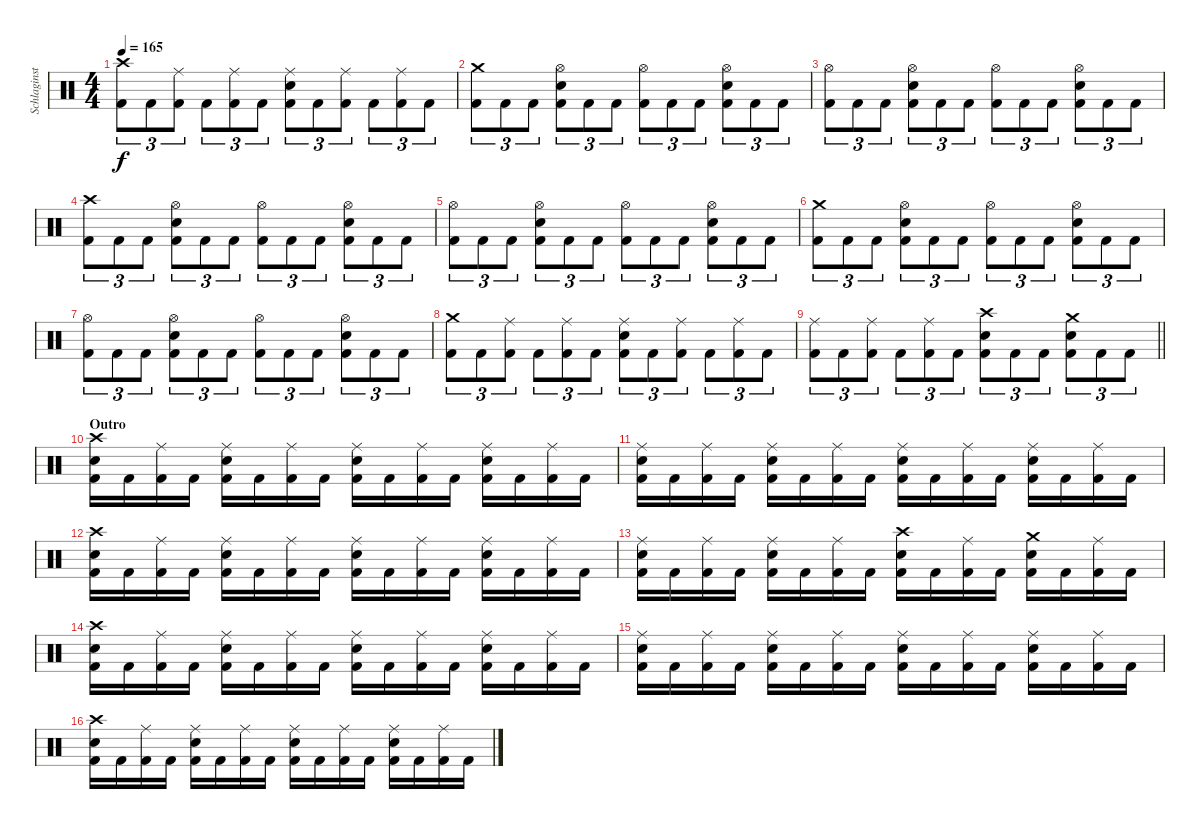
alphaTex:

\track ("Schlaginstrumente - Auswahl" "Schlaginst") {instrument percussion}
\staff {score}
\articulation defaults
\ts (4 4)
\tempo 165
\clef neutral
\ks c
("Crash high (hit)" "Kick (hit) 2").8{tu (3 2) dy f} "Kick (hit) 2".8{tu (3 2)} ("Ride (middle)" "Kick (hit) 2").8{tu (3 2)} "Kick (hit) 2".8{tu (3 2)} ("Ride (middle)" "Kick (hit) 2").8{tu (3 2)} "Kick (hit) 2".8{tu (3 2)} ("Ride (middle)" "Electric Snare (hit)" "Kick (hit) 2").8{tu (3 2)} "Kick (hit) 2".8{tu (3 2)} ("Ride (middle)" "Kick (hit) 2").8{tu (3 2)} "Kick (hit) 2".8{tu (3 2)} ("Ride (middle)" "Kick (hit) 2").8{tu (3 2)} "Kick (hit) 2".8{tu (3 2)} |
("Crash medium (hit)" "Kick (hit) 2").8{tu (3 2)} "Kick (hit) 2".8{tu (3 2)} "Kick (hit) 2".8{tu (3 2)} ("Hi-Hat (open)" "Electric Snare (hit)" "Kick (hit) 2").8{tu (3 2)} "Kick (hit) 2".8{tu (3 2)} "Kick (hit) 2".8{tu (3 2)} ("Hi-Hat (open)" "Kick (hit) 2").8{tu (3 2)} "Kick (hit) 2".8{tu (3 2)} "Kick (hit) 2".8{tu (3 2)} ("Hi-Hat (open)" "Electric Snare (hit)" "Kick (hit) 2").8{tu (3 2)} "Kick (hit) 2".8{tu (3 2)} "Kick (hit) 2".8{tu (3 2)} |
("Hi-Hat (open)" "Kick (hit) 2").8{tu (3 2)} "Kick (hit) 2".8{tu (3 2)} "Kick (hit) 2".8{tu (3 2)} ("Hi-Hat (open)" "Electric Snare (hit)" "Kick (hit) 2").8{tu (3 2)} "Kick (hit) 2".8{tu (3 2)} "Kick (hit) 2".8{tu (3 2)} ("Hi-Hat (open)" "Kick (hit) 2").8{tu (3 2)} "Kick (hit) 2".8{tu (3 2)} "Kick (hit) 2".8{tu (3 2)} ("Hi-Hat (open)" "Electric Snare (hit)" "Kick (hit) 2").8{tu (3 2)} "Kick (hit) 2".8{tu (3 2)} "Kick (hit) 2".8{tu (3 2)} |
("Crash high (hit)" "Kick (hit) 2").8{tu (3 2)} "Kick (hit) 2".8{tu (3 2)} "Kick (hit) 2".8{tu (3 2)} ("Hi-Hat (open)" "Electric Snare (hit)" "Kick (hit) 2").8{tu (3 2)} "Kick (hit) 2".8{tu (3 2)} "Kick (hit) 2".8{tu (3 2)} ("Hi-Hat (open)" "Kick (hit) 2").8{tu (3 2)} "Kick (hit) 2".8{tu (3 2)} "Kick (hit) 2".8{tu (3 2)} ("Hi-Hat (open)" "Electric Snare (hit)" "Kick (hit) 2").8{tu (3 2)} "Kick (hit) 2".8{tu (3 2)} "Kick (hit) 2".8{tu (3 2)} |
("Hi-Hat (open)" "Kick (hit) 2").8{tu (3 2)} "Kick (hit) 2".8{tu (3 2)} "Kick (hit) 2".8{tu (3 2)} ("Hi-Hat (open)" "Electric Snare (hit)" "Kick (hit) 2").8{tu (3 2)} "Kick (hit) 2".8{tu (3 2)} "Kick (hit) 2".8{tu (3 2)} ("Hi-Hat (open)" "Kick (hit) 2").8{tu (3 2)} "Kick (hit) 2".8{tu (3 2)} "Kick (hit) 2".8{tu (3 2)} ("Hi-Hat (open)" "Electric Snare (hit)" "Kick (hit) 2").8{tu (3 2)} "Kick (hit) 2".8{tu (3 2)} "Kick (hit) 2".8{tu (3 2)} |
("Crash medium (hit)" "Kick (hit) 2").8{tu (3 2)} "Kick (hit) 2".8{tu (3 2)} "Kick (hit) 2".8{tu (3 2)} ("Hi-Hat (open)" "Electric Snare (hit)" "Kick (hit) 2").8{tu (3 2)} "Kick (hit) 2".8{tu (3 2)} "Kick (hit) 2".8{tu (3 2)} ("Hi-Hat (open)" "Kick (hit) 2").8{tu (3 2)} "Kick (hit) 2".8{tu (3 2)} "Kick (hit) 2".8{tu (3 2)} ("Hi-Hat (open)" "Electric Snare (hit)" "Kick (hit) 2").8{tu (3 2)} "Kick (hit) 2".8{tu (3 2)} "Kick (hit) 2".8{tu (3 2)} |
("Hi-Hat (open)" "Kick (hit) 2").8{tu (3 2)} "Kick (hit) 2".8{tu (3 2)} "Kick (hit) 2".8{tu (3 2)} ("Hi-Hat (open)" "Electric Snare (hit)" "Kick (hit) 2").8{tu (3 2)} "Kick (hit) 2".8{tu (3 2)} "Kick (hit) 2".8{tu (3 2)} ("Hi-Hat (open)" "Kick (hit) 2").8{tu (3 2)} "Kick (hit) 2".8{tu (3 2)} "Kick (hit) 2".8{tu (3 2)} ("Hi-Hat (open)" "Electric Snare (hit)" "Kick (hit) 2").8{tu (3 2)} "Kick (hit) 2".8{tu (3 2)} "Kick (hit) 2".8{tu (3 2)} |
("Crash medium (hit)" "Kick (hit) 2").8{tu (3 2)} "Kick (hit) 2".8{tu (3 2)} ("Ride (middle)" "Kick (hit) 2").8{tu (3 2)} "Kick (hit) 2".8{tu (3 2)} ("Ride (middle)" "Kick (hit) 2").8{tu (3 2)} "Kick (hit) 2".8{tu (3 2)} ("Ride (middle)" "Electric Snare (hit)" "Kick (hit) 2").8{tu (3 2)} "Kick (hit) 2".8{tu (3 2)} ("Ride (middle)" "Kick (hit) 2").8{tu (3 2)} "Kick (hit) 2".8{tu (3 2)} ("Ride (middle)" "Kick (hit) 2").8{tu (3 2)} "Kick (hit) 2".8{tu (3 2)} |
\barLineRight lightlight
("Ride (middle)" "Kick (hit) 2").8{tu (3 2)} "Kick (hit) 2".8{tu (3 2)} ("Ride (middle)" "Kick (hit) 2").8{tu (3 2)} "Kick (hit) 2".8{tu (3 2)} ("Ride (middle)" "Kick (hit) 2").8{tu (3 2)} "Kick (hit) 2".8{tu (3 2)} ("Crash high (hit)" "Electric Snare (hit)" "Kick (hit) 2").8{tu (3 2)} "Kick (hit) 2".8{tu (3 2)} "Kick (hit) 2".8{tu (3 2)} ("Crash medium (hit)" "Electric Snare (hit)" "Kick (hit) 2").8{tu (3 2)} "Kick (hit) 2".8{tu (3 2)} "Kick (hit) 2".8{tu (3 2)} |
\section ("" "Outro")
("Crash high (hit)" "Electric Snare (hit)" "Kick (hit) 2").16 "Kick (hit) 2".16 ("Ride (middle)" "Kick (hit) 2").16 "Kick (hit) 2".16 ("Ride (middle)" "Electric Snare (hit)" "Kick (hit) 2").16 "Kick (hit) 2".16 ("Ride (middle)" "Kick (hit) 2").16 "Kick (hit) 2".16 ("Ride (middle)" "Electric Snare (hit)" "Kick (hit) 2").16 "Kick (hit) 2".16 ("Ride (middle)" "Kick (hit) 2").16 "Kick (hit) 2".16 ("Ride (middle)" "Electric Snare (hit)" "Kick (hit) 2").16 "Kick (hit) 2".16 ("Ride (middle)" "Kick (hit) 2").16 "Kick (hit) 2".16 |
("Ride (middle)" "Electric Snare (hit)" "Kick (hit) 2").16 "Kick (hit) 2".16 ("Ride (middle)" "Kick (hit) 2").16 "Kick (hit) 2".16 ("Ride (middle)" "Electric Snare (hit)" "Kick (hit) 2").16 "Kick (hit) 2".16 ("Ride (middle)" "Kick (hit) 2").16 "Kick (hit) 2".16 ("Ride (middle)" "Electric Snare (hit)" "Kick (hit) 2").16 "Kick (hit) 2".16 ("Ride (middle)" "Kick (hit) 2").16 "Kick (hit) 2".16 ("Ride (middle)" "Electric Snare (hit)" "Kick (hit) 2").16 "Kick (hit) 2".16 ("Ride (middle)" "Kick (hit) 2").16 "Kick (hit) 2".16 |
("Crash high (hit)" "Electric Snare (hit)" "Kick (hit) 2").16 "Kick (hit) 2".16 ("Ride (middle)" "Kick (hit) 2").16 "Kick (hit) 2".16 ("Ride (middle)" "Electric Snare (hit)" "Kick (hit) 2").16 "Kick (hit) 2".16 ("Ride (middle)" "Kick (hit) 2").16 "Kick (hit) 2".16 ("Ride (middle)" "Electric Snare (hit)" "Kick (hit) 2").16 "Kick (hit) 2".16 ("Ride (middle)" "Kick (hit) 2").16 "Kick (hit) 2".16 ("Ride (middle)" "Electric Snare (hit)" "Kick (hit) 2").16 "Kick (hit) 2".16 ("Ride (middle)" "Kick (hit) 2").16 "Kick (hit) 2".16 |
("Ride (middle)" "Electric Snare (hit)" "Kick (hit) 2").16 "Kick (hit) 2".16 ("Ride (middle)" "Kick (hit) 2").16 "Kick (hit) 2".16 ("Ride (middle)" "Electric Snare (hit)" "Kick (hit) 2").16 "Kick (hit) 2".16 ("Ride (middle)" "Kick (hit) 2").16 "Kick (hit) 2".16 ("Crash high (hit)" "Electric Snare (hit)" "Kick (hit) 2").16 "Kick (hit) 2".16 ("Ride (middle)" "Kick (hit) 2").16 "Kick (hit) 2".16 ("Crash medium (hit)" "Electric Snare (hit)" "Kick (hit) 2").16 "Kick (hit) 2".16 ("Ride (middle)" "Kick (hit) 2").16 "Kick (hit) 2".16 |
("Crash high (hit)" "Electric Snare (hit)" "Kick (hit) 2").16 "Kick (hit) 2".16 ("Ride (middle)" "Kick (hit) 2").16 "Kick (hit) 2".16 ("Ride (middle)" "Electric Snare (hit)" "Kick (hit) 2").16 "Kick (hit) 2".16 ("Ride (middle)" "Kick (hit) 2").16 "Kick (hit) 2".16 ("Ride (middle)" "Electric Snare (hit)" "Kick (hit) 2").16 "Kick (hit) 2".16 ("Ride (middle)" "Kick (hit) 2").16 "Kick (hit) 2".16 ("Ride (middle)" "Electric Snare (hit)" "Kick (hit) 2").16 "Kick (hit) 2".16 ("Ride (middle)" "Kick (hit) 2").16 "Kick (hit) 2".16 |
("Ride (middle)" "Electric Snare (hit)" "Kick (hit) 2").16 "Kick (hit) 2".16 ("Ride (middle)" "Kick (hit) 2").16 "Kick (hit) 2".16 ("Ride (middle)" "Electric Snare (hit)" "Kick (hit) 2").16 "Kick (hit) 2".16 ("Ride (middle)" "Kick (hit) 2").16 "Kick (hit) 2".16 ("Ride (middle)" "Electric Snare (hit)" "Kick (hit) 2").16 "Kick (hit) 2".16 ("Ride (middle)" "Kick (hit) 2").16 "Kick (hit) 2".16 ("Ride (middle)" "Electric Snare (hit)" "Kick (hit) 2").16 "Kick (hit) 2".16 ("Ride (middle)" "Kick (hit) 2").16 "Kick (hit) 2".16 |
("Crash high (hit)" "Electric Snare (hit)" "Kick (hit) 2").16 "Kick (hit) 2".16 ("Ride (middle)" "Kick (hit) 2").16 "Kick (hit) 2".16 ("Ride (middle)" "Electric Snare (hit)" "Kick (hit) 2").16 "Kick (hit) 2".16 ("Ride (middle)" "Kick (hit) 2").16 "Kick (hit) 2".16 ("Ride (middle)" "Electric Snare (hit)" "Kick (hit) 2").16 "Kick (hit) 2".16 ("Ride (middle)" "Kick (hit) 2").16 "Kick (hit) 2".16 ("Ride (middle)" "Electric Snare (hit)" "Kick (hit) 2").16 "Kick (hit) 2".16 ("Ride (middle)" "Kick (hit) 2").16 "Kick (hit) 2".16
